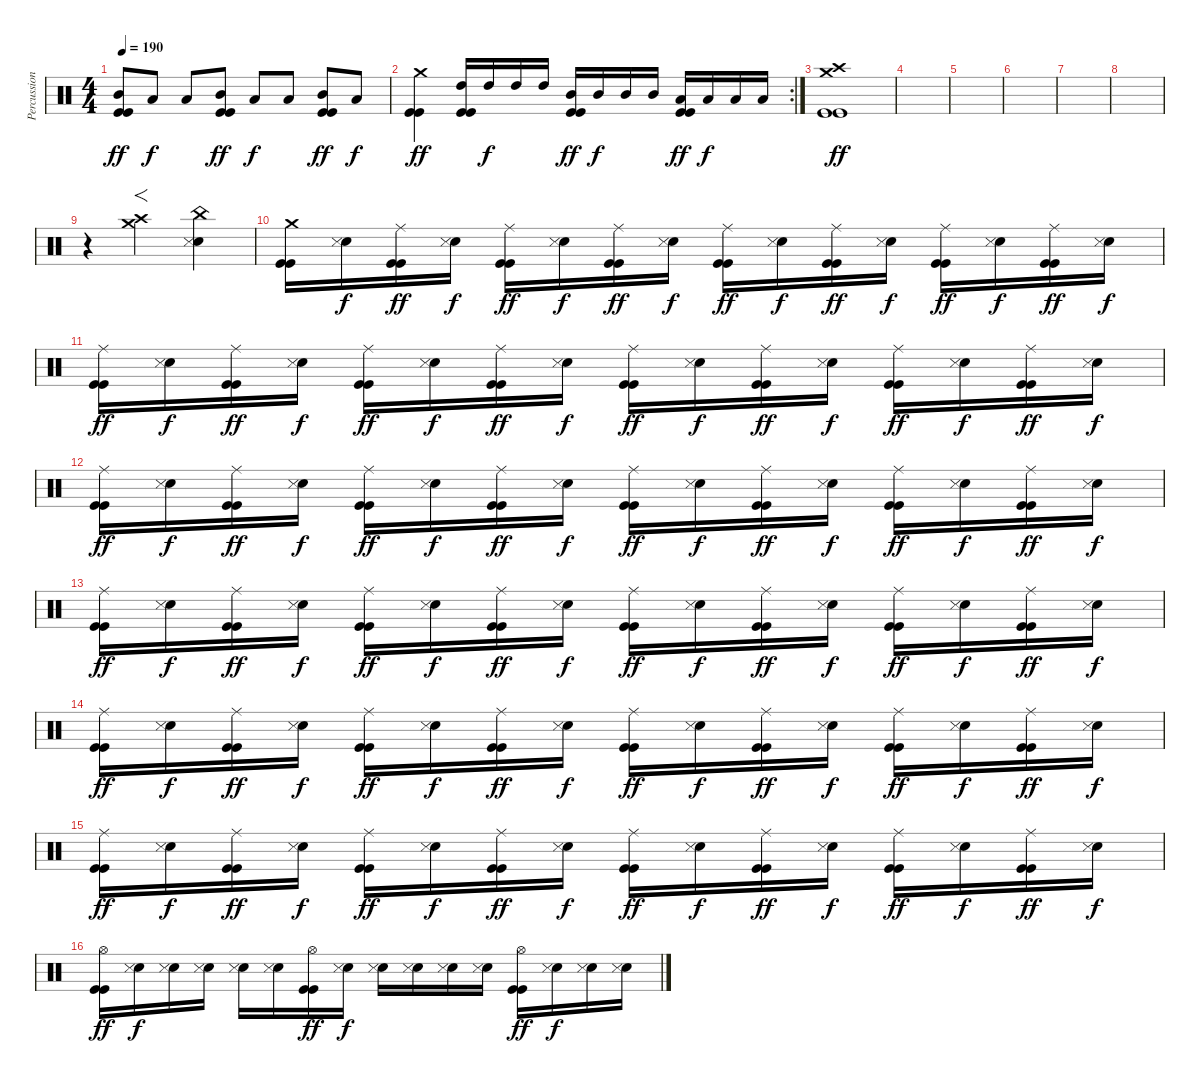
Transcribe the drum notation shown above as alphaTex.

\track ("Percussion" "Percussion") {instrument percussion}
\staff {score}
\articulation defaults
\ts (4 4)
\tempo 190
\clef neutral
\ks c
("Mid Tom (hit)" "Kick (hit)" "Kick (hit)").8{dy ff} "Low Tom (hit)".8{dy f} "Low Tom (hit)".8 ("Mid Tom (hit)" "Kick (hit)" "Kick (hit)").8{dy ff} "Low Tom (hit)".8{dy f} "Low Tom (hit)".8 ("Mid Tom (hit)" "Kick (hit)" "Kick (hit)").8{dy ff} "Low Tom (hit)".8{dy f} |
\rc 2
("Crash medium (hit)" "Kick (hit)" "Kick (hit)").4{dy ff} ("High Tom (hit)" "Kick (hit)" "Kick (hit)").16 "High Tom (hit)".16{dy f} "High Tom (hit)".16 "High Tom (hit)".16 ("Mid Tom (hit)" "Kick (hit)" "Kick (hit)").16{dy ff} "Mid Tom (hit)".16{dy f} "Mid Tom (hit)".16 "Mid Tom (hit)".16 ("Low Tom (hit)" "Kick (hit)" "Kick (hit)").16{dy ff} "Low Tom (hit)".16{dy f} "Low Tom (hit)".16 "Low Tom (hit)".16 |
("Crash high (hit)" "Crash medium (hit)" "Kick (hit)" "Kick (hit)").1{dy ff} |
|
|
|
|
|
r.4 ("Crash high (hit)" "Crash medium (hit)").2{f} ("China (hit)" "Electric Snare (hit)" "Snare (side stick) 3").4 |
("Crash medium (hit)" "Kick (hit)" "Kick (hit)").16 ("Electric Snare (hit)" "Snare (side stick) 3").16{dy f} ("Ride (middle)" "Kick (hit)" "Kick (hit)").16{dy ff} ("Electric Snare (hit)" "Snare (side stick) 3").16{dy f} ("Ride (middle)" "Kick (hit)" "Kick (hit)").16{dy ff} ("Electric Snare (hit)" "Snare (side stick) 3").16{dy f} ("Ride (middle)" "Kick (hit)" "Kick (hit)").16{dy ff} ("Electric Snare (hit)" "Snare (side stick) 3").16{dy f} ("Ride (middle)" "Kick (hit)" "Kick (hit)").16{dy ff} ("Electric Snare (hit)" "Snare (side stick) 3").16{dy f} ("Ride (middle)" "Kick (hit)" "Kick (hit)").16{dy ff} ("Electric Snare (hit)" "Snare (side stick) 3").16{dy f} ("Ride (middle)" "Kick (hit)" "Kick (hit)").16{dy ff} ("Electric Snare (hit)" "Snare (side stick) 3").16{dy f} ("Ride (middle)" "Kick (hit)" "Kick (hit)").16{dy ff} ("Electric Snare (hit)" "Snare (side stick) 3").16{dy f} |
("Ride (middle)" "Kick (hit)" "Kick (hit)").16{dy ff} ("Electric Snare (hit)" "Snare (side stick) 3").16{dy f} ("Ride (middle)" "Kick (hit)" "Kick (hit)").16{dy ff} ("Electric Snare (hit)" "Snare (side stick) 3").16{dy f} ("Ride (middle)" "Kick (hit)" "Kick (hit)").16{dy ff} ("Electric Snare (hit)" "Snare (side stick) 3").16{dy f} ("Ride (middle)" "Kick (hit)" "Kick (hit)").16{dy ff} ("Electric Snare (hit)" "Snare (side stick) 3").16{dy f} ("Ride (middle)" "Kick (hit)" "Kick (hit)").16{dy ff} ("Electric Snare (hit)" "Snare (side stick) 3").16{dy f} ("Ride (middle)" "Kick (hit)" "Kick (hit)").16{dy ff} ("Electric Snare (hit)" "Snare (side stick) 3").16{dy f} ("Ride (middle)" "Kick (hit)" "Kick (hit)").16{dy ff} ("Electric Snare (hit)" "Snare (side stick) 3").16{dy f} ("Ride (middle)" "Kick (hit)" "Kick (hit)").16{dy ff} ("Electric Snare (hit)" "Snare (side stick) 3").16{dy f} |
("Ride (middle)" "Kick (hit)" "Kick (hit)").16{dy ff} ("Electric Snare (hit)" "Snare (side stick) 3").16{dy f} ("Ride (middle)" "Kick (hit)" "Kick (hit)").16{dy ff} ("Electric Snare (hit)" "Snare (side stick) 3").16{dy f} ("Ride (middle)" "Kick (hit)" "Kick (hit)").16{dy ff} ("Electric Snare (hit)" "Snare (side stick) 3").16{dy f} ("Ride (middle)" "Kick (hit)" "Kick (hit)").16{dy ff} ("Electric Snare (hit)" "Snare (side stick) 3").16{dy f} ("Ride (middle)" "Kick (hit)" "Kick (hit)").16{dy ff} ("Electric Snare (hit)" "Snare (side stick) 3").16{dy f} ("Ride (middle)" "Kick (hit)" "Kick (hit)").16{dy ff} ("Electric Snare (hit)" "Snare (side stick) 3").16{dy f} ("Ride (middle)" "Kick (hit)" "Kick (hit)").16{dy ff} ("Electric Snare (hit)" "Snare (side stick) 3").16{dy f} ("Ride (middle)" "Kick (hit)" "Kick (hit)").16{dy ff} ("Electric Snare (hit)" "Snare (side stick) 3").16{dy f} |
("Ride (middle)" "Kick (hit)" "Kick (hit)").16{dy ff} ("Electric Snare (hit)" "Snare (side stick) 3").16{dy f} ("Ride (middle)" "Kick (hit)" "Kick (hit)").16{dy ff} ("Electric Snare (hit)" "Snare (side stick) 3").16{dy f} ("Ride (middle)" "Kick (hit)" "Kick (hit)").16{dy ff} ("Electric Snare (hit)" "Snare (side stick) 3").16{dy f} ("Ride (middle)" "Kick (hit)" "Kick (hit)").16{dy ff} ("Electric Snare (hit)" "Snare (side stick) 3").16{dy f} ("Ride (middle)" "Kick (hit)" "Kick (hit)").16{dy ff} ("Electric Snare (hit)" "Snare (side stick) 3").16{dy f} ("Ride (middle)" "Kick (hit)" "Kick (hit)").16{dy ff} ("Electric Snare (hit)" "Snare (side stick) 3").16{dy f} ("Ride (middle)" "Kick (hit)" "Kick (hit)").16{dy ff} ("Electric Snare (hit)" "Snare (side stick) 3").16{dy f} ("Ride (middle)" "Kick (hit)" "Kick (hit)").16{dy ff} ("Electric Snare (hit)" "Snare (side stick) 3").16{dy f} |
("Ride (middle)" "Kick (hit)" "Kick (hit)").16{dy ff} ("Electric Snare (hit)" "Snare (side stick) 3").16{dy f} ("Ride (middle)" "Kick (hit)" "Kick (hit)").16{dy ff} ("Electric Snare (hit)" "Snare (side stick) 3").16{dy f} ("Ride (middle)" "Kick (hit)" "Kick (hit)").16{dy ff} ("Electric Snare (hit)" "Snare (side stick) 3").16{dy f} ("Ride (middle)" "Kick (hit)" "Kick (hit)").16{dy ff} ("Electric Snare (hit)" "Snare (side stick) 3").16{dy f} ("Ride (middle)" "Kick (hit)" "Kick (hit)").16{dy ff} ("Electric Snare (hit)" "Snare (side stick) 3").16{dy f} ("Ride (middle)" "Kick (hit)" "Kick (hit)").16{dy ff} ("Electric Snare (hit)" "Snare (side stick) 3").16{dy f} ("Ride (middle)" "Kick (hit)" "Kick (hit)").16{dy ff} ("Electric Snare (hit)" "Snare (side stick) 3").16{dy f} ("Ride (middle)" "Kick (hit)" "Kick (hit)").16{dy ff} ("Electric Snare (hit)" "Snare (side stick) 3").16{dy f} |
("Ride (middle)" "Kick (hit)" "Kick (hit)").16{dy ff} ("Electric Snare (hit)" "Snare (side stick) 3").16{dy f} ("Ride (middle)" "Kick (hit)" "Kick (hit)").16{dy ff} ("Electric Snare (hit)" "Snare (side stick) 3").16{dy f} ("Ride (middle)" "Kick (hit)" "Kick (hit)").16{dy ff} ("Electric Snare (hit)" "Snare (side stick) 3").16{dy f} ("Ride (middle)" "Kick (hit)" "Kick (hit)").16{dy ff} ("Electric Snare (hit)" "Snare (side stick) 3").16{dy f} ("Ride (middle)" "Kick (hit)" "Kick (hit)").16{dy ff} ("Electric Snare (hit)" "Snare (side stick) 3").16{dy f} ("Ride (middle)" "Kick (hit)" "Kick (hit)").16{dy ff} ("Electric Snare (hit)" "Snare (side stick) 3").16{dy f} ("Ride (middle)" "Kick (hit)" "Kick (hit)").16{dy ff} ("Electric Snare (hit)" "Snare (side stick) 3").16{dy f} ("Ride (middle)" "Kick (hit)" "Kick (hit)").16{dy ff} ("Electric Snare (hit)" "Snare (side stick) 3").16{dy f} |
("Hi-Hat (open)" "Kick (hit)" "Kick (hit)").16{dy ff} ("Electric Snare (hit)" "Snare (side stick) 3").16{dy f} ("Electric Snare (hit)" "Snare (side stick) 3").16 ("Electric Snare (hit)" "Snare (side stick) 3").16 ("Electric Snare (hit)" "Snare (side stick) 3").16 ("Electric Snare (hit)" "Snare (side stick) 3").16 ("Hi-Hat (open)" "Kick (hit)" "Kick (hit)").16{dy ff} ("Electric Snare (hit)" "Snare (side stick) 3").16{dy f} ("Electric Snare (hit)" "Snare (side stick) 3").16 ("Electric Snare (hit)" "Snare (side stick) 3").16 ("Electric Snare (hit)" "Snare (side stick) 3").16 ("Electric Snare (hit)" "Snare (side stick) 3").16 ("Hi-Hat (open)" "Kick (hit)" "Kick (hit)").16{dy ff} ("Electric Snare (hit)" "Snare (side stick) 3").16{dy f} ("Electric Snare (hit)" "Snare (side stick) 3").16 ("Electric Snare (hit)" "Snare (side stick) 3").16
